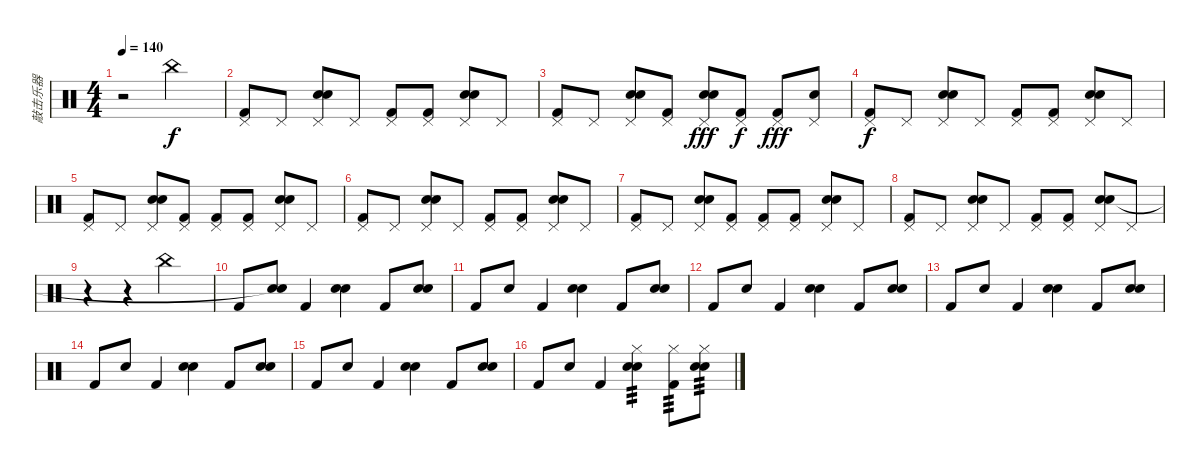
\track ("敲击乐器" "敲击乐器") {instrument percussion}
\staff {score}
\articulation defaults
\ts (4 4)
\tempo 140
\clef neutral
\ks c
r.2{dy f} "China (hit)".2 |
("Kick (hit) 2" "Pedal Hi-Hat (hit)").8 "Pedal Hi-Hat (hit)".8 ("Snare (hit) 2" "Electric Snare (hit)" "Pedal Hi-Hat (hit)").8 "Pedal Hi-Hat (hit)".8 ("Kick (hit) 2" "Pedal Hi-Hat (hit)").8 ("Kick (hit) 2" "Pedal Hi-Hat (hit)").8 ("Snare (hit) 2" "Electric Snare (hit)" "Pedal Hi-Hat (hit)").8 "Pedal Hi-Hat (hit)".8 |
("Kick (hit) 2" "Pedal Hi-Hat (hit)").8 "Pedal Hi-Hat (hit)".8 ("Snare (hit) 2" "Electric Snare (hit)" "Pedal Hi-Hat (hit)").8 ("Kick (hit) 2" "Pedal Hi-Hat (hit)").8 ("Snare (hit) 2" "Electric Snare (hit)" "Pedal Hi-Hat (hit)").8{dy fff} ("Kick (hit) 2" "Pedal Hi-Hat (hit)").8{dy f} ("Kick (hit) 2" "Pedal Hi-Hat (hit)").8{dy fff} ("Electric Snare (hit)" "Pedal Hi-Hat (hit)").8 |
("Kick (hit) 2" "Pedal Hi-Hat (hit)").8{dy f} "Pedal Hi-Hat (hit)".8 ("Snare (hit) 2" "Electric Snare (hit)" "Pedal Hi-Hat (hit)").8 "Pedal Hi-Hat (hit)".8 ("Kick (hit) 2" "Pedal Hi-Hat (hit)").8 ("Kick (hit) 2" "Pedal Hi-Hat (hit)").8 ("Snare (hit) 2" "Electric Snare (hit)" "Pedal Hi-Hat (hit)").8 "Pedal Hi-Hat (hit)".8 |
("Kick (hit) 2" "Pedal Hi-Hat (hit)").8 "Pedal Hi-Hat (hit)".8 ("Snare (hit) 2" "Electric Snare (hit)" "Pedal Hi-Hat (hit)").8 ("Kick (hit) 2" "Pedal Hi-Hat (hit)").8 ("Kick (hit) 2" "Pedal Hi-Hat (hit)").8 ("Kick (hit) 2" "Pedal Hi-Hat (hit)").8 ("Snare (hit) 2" "Electric Snare (hit)" "Pedal Hi-Hat (hit)").8 "Pedal Hi-Hat (hit)".8 |
("Kick (hit) 2" "Pedal Hi-Hat (hit)").8 "Pedal Hi-Hat (hit)".8 ("Snare (hit) 2" "Electric Snare (hit)" "Pedal Hi-Hat (hit)").8 "Pedal Hi-Hat (hit)".8 ("Kick (hit) 2" "Pedal Hi-Hat (hit)").8 ("Kick (hit) 2" "Pedal Hi-Hat (hit)").8 ("Snare (hit) 2" "Electric Snare (hit)" "Pedal Hi-Hat (hit)").8 "Pedal Hi-Hat (hit)".8 |
("Kick (hit) 2" "Pedal Hi-Hat (hit)").8 "Pedal Hi-Hat (hit)".8 ("Snare (hit) 2" "Electric Snare (hit)" "Pedal Hi-Hat (hit)").8 ("Kick (hit) 2" "Pedal Hi-Hat (hit)").8 ("Kick (hit) 2" "Pedal Hi-Hat (hit)").8 ("Kick (hit) 2" "Pedal Hi-Hat (hit)").8 ("Snare (hit) 2" "Electric Snare (hit)" "Pedal Hi-Hat (hit)").8 "Pedal Hi-Hat (hit)".8 |
("Kick (hit) 2" "Pedal Hi-Hat (hit)").8 "Pedal Hi-Hat (hit)".8 ("Snare (hit) 2" "Electric Snare (hit)" "Pedal Hi-Hat (hit)").8 "Pedal Hi-Hat (hit)".8 ("Kick (hit) 2" "Pedal Hi-Hat (hit)").8 ("Kick (hit) 2" "Pedal Hi-Hat (hit)").8 ("Snare (hit) 2" "Electric Snare (hit)" "Pedal Hi-Hat (hit)").8 "Pedal Hi-Hat (hit)".8 |
r.4 r.4 "China (hit)".2 |
"Kick (hit) 2".8 ("Electric Snare (hit)" "Snare (hit)"{t}).8 "Kick (hit) 2".4 ("Snare (hit) 2" "Electric Snare (hit)").4 "Kick (hit) 2".8 ("Snare (hit) 2" "Electric Snare (hit)").8 |
"Kick (hit) 2".8 "Electric Snare (hit)".8 "Kick (hit) 2".4 ("Snare (hit) 2" "Electric Snare (hit)").4 "Kick (hit) 2".8 ("Snare (hit) 2" "Electric Snare (hit)").8 |
"Kick (hit) 2".8 "Electric Snare (hit)".8 "Kick (hit) 2".4 ("Snare (hit) 2" "Electric Snare (hit)").4 "Kick (hit) 2".8 ("Snare (hit) 2" "Electric Snare (hit)").8 |
"Kick (hit) 2".8 "Electric Snare (hit)".8 "Kick (hit) 2".4 ("Snare (hit) 2" "Electric Snare (hit)").4 "Kick (hit) 2".8 ("Snare (hit) 2" "Electric Snare (hit)").8 |
"Kick (hit) 2".8 "Electric Snare (hit)".8 "Kick (hit) 2".4 ("Snare (hit) 2" "Electric Snare (hit)").4 "Kick (hit) 2".8 ("Snare (hit) 2" "Electric Snare (hit)").8 |
"Kick (hit) 2".8 "Electric Snare (hit)".8 "Kick (hit) 2".4 ("Snare (hit) 2" "Electric Snare (hit)").4 "Kick (hit) 2".8 ("Snare (hit) 2" "Electric Snare (hit)").8 |
"Kick (hit) 2".8 "Electric Snare (hit)".8 "Kick (hit) 2".4 ("Snare (hit) 2" "Electric Snare (hit)" "Hi-Hat (closed)").4{tp 3} ("Kick (hit) 2" "Hi-Hat (closed)").8{tp 3} ("Snare (hit) 2" "Electric Snare (hit)" "Hi-Hat (closed)").8{tp 3}
